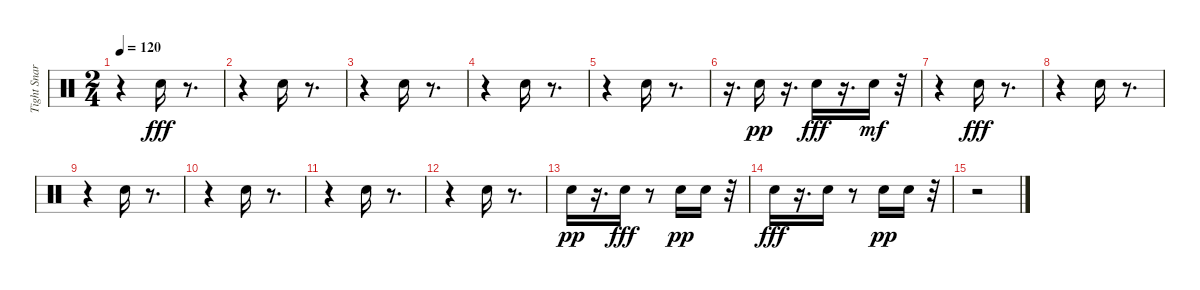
\track ("Tight Snare (1) (1) (1) (1)" "Tight Snar") {instrument percussion}
\staff {score}
\articulation defaults
\ts (2 4)
\tempo 120
\clef neutral
\ks c
r.4{dy fff} "Electric Snare (hit)".16 r.8{d} |
r.4 "Electric Snare (hit)".16 r.8{d} |
r.4 "Electric Snare (hit)".16 r.8{d} |
r.4 "Electric Snare (hit)".16 r.8{d} |
r.4 "Electric Snare (hit)".16 r.8{d} |
r.16{d} "Electric Snare (hit)".16{dy pp} r.16{d} "Electric Snare (hit)".16{dy fff} r.16{d} "Electric Snare (hit)".16{dy mf} r.32 |
r.4 "Electric Snare (hit)".16{dy fff} r.8{d} |
r.4 "Electric Snare (hit)".16 r.8{d} |
r.4 "Electric Snare (hit)".16 r.8{d} |
r.4 "Electric Snare (hit)".16 r.8{d} |
r.4 "Electric Snare (hit)".16 r.8{d} |
r.4 "Electric Snare (hit)".16 r.8{d} |
"Electric Snare (hit)".16{dy pp} r.16{d} "Electric Snare (hit)".16{dy fff} r.8 "Electric Snare (hit)".16{dy pp} "Electric Snare (hit)".16 r.32 |
"Electric Snare (hit)".16{dy fff} r.16{d} "Electric Snare (hit)".16 r.8 "Electric Snare (hit)".16{dy pp} "Electric Snare (hit)".16 r.32 |
r.2
